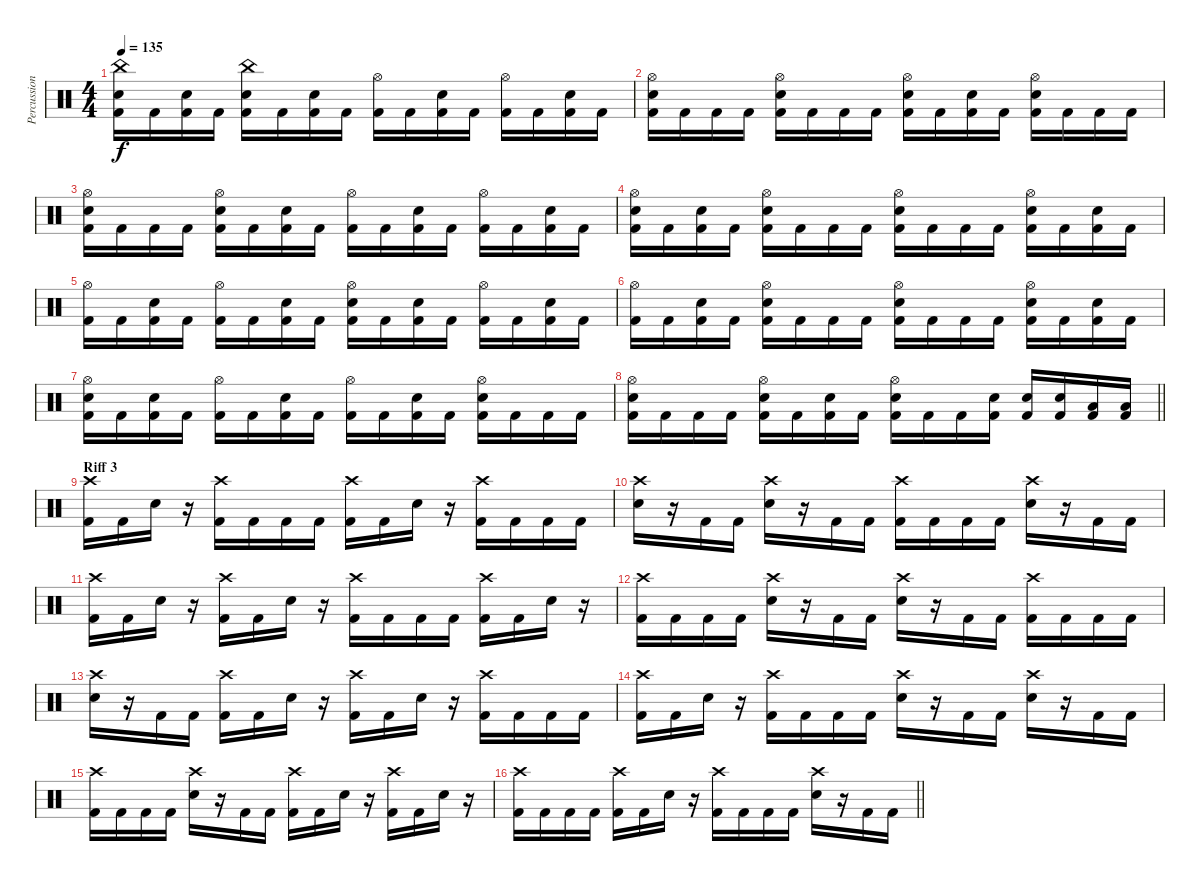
\track ("Percussion" "Percussion") {instrument percussion}
\staff {score}
\articulation defaults
\ts (4 4)
\tempo 135
\clef neutral
\ks c
("China (hit)" "Snare (hit) 2" "Kick (hit) 2").16{dy f} "Kick (hit) 2".16 ("Snare (hit) 2" "Kick (hit) 2").16 "Kick (hit) 2".16 ("China (hit)" "Snare (hit) 2" "Kick (hit) 2").16 "Kick (hit) 2".16 ("Snare (hit) 2" "Kick (hit) 2").16 "Kick (hit) 2".16 ("Hi-Hat (open)" "Kick (hit) 2").16 "Kick (hit) 2".16 ("Snare (hit) 2" "Kick (hit) 2").16 "Kick (hit) 2".16 ("Hi-Hat (open)" "Kick (hit) 2").16 "Kick (hit) 2".16 ("Snare (hit) 2" "Kick (hit) 2").16 "Kick (hit) 2".16 |
("Hi-Hat (open)" "Snare (hit) 2" "Kick (hit) 2").16 "Kick (hit) 2".16 "Kick (hit) 2".16 "Kick (hit) 2".16 ("Hi-Hat (open)" "Snare (hit) 2" "Kick (hit) 2").16 "Kick (hit) 2".16 "Kick (hit) 2".16 "Kick (hit) 2".16 ("Hi-Hat (open)" "Snare (hit) 2" "Kick (hit) 2").16 "Kick (hit) 2".16 ("Snare (hit) 2" "Kick (hit) 2").16 "Kick (hit) 2".16 ("Hi-Hat (open)" "Snare (hit) 2" "Kick (hit) 2").16 "Kick (hit) 2".16 "Kick (hit) 2".16 "Kick (hit) 2".16 |
("Hi-Hat (open)" "Snare (hit) 2" "Kick (hit) 2").16 "Kick (hit) 2".16 "Kick (hit) 2".16 "Kick (hit) 2".16 ("Hi-Hat (open)" "Snare (hit) 2" "Kick (hit) 2").16 "Kick (hit) 2".16 ("Snare (hit) 2" "Kick (hit) 2").16 "Kick (hit) 2".16 ("Hi-Hat (open)" "Kick (hit) 2").16 "Kick (hit) 2".16 ("Snare (hit) 2" "Kick (hit) 2").16 "Kick (hit) 2".16 ("Hi-Hat (open)" "Kick (hit) 2").16 "Kick (hit) 2".16 ("Snare (hit) 2" "Kick (hit) 2").16 "Kick (hit) 2".16 |
("Hi-Hat (open)" "Snare (hit) 2" "Kick (hit) 2").16 "Kick (hit) 2".16 ("Snare (hit) 2" "Kick (hit) 2").16 "Kick (hit) 2".16 ("Hi-Hat (open)" "Snare (hit) 2" "Kick (hit) 2").16 "Kick (hit) 2".16 "Kick (hit) 2".16 "Kick (hit) 2".16 ("Hi-Hat (open)" "Snare (hit) 2" "Kick (hit) 2").16 "Kick (hit) 2".16 "Kick (hit) 2".16 "Kick (hit) 2".16 ("Hi-Hat (open)" "Snare (hit) 2" "Kick (hit) 2").16 "Kick (hit) 2".16 ("Snare (hit) 2" "Kick (hit) 2").16 "Kick (hit) 2".16 |
("Hi-Hat (open)" "Kick (hit) 2").16 "Kick (hit) 2".16 ("Snare (hit) 2" "Kick (hit) 2").16 "Kick (hit) 2".16 ("Hi-Hat (open)" "Kick (hit) 2").16 "Kick (hit) 2".16 ("Snare (hit) 2" "Kick (hit) 2").16 "Kick (hit) 2".16 ("Hi-Hat (open)" "Snare (hit) 2" "Kick (hit) 2").16 "Kick (hit) 2".16 ("Snare (hit) 2" "Kick (hit) 2").16 "Kick (hit) 2".16 ("Hi-Hat (open)" "Kick (hit) 2").16 "Kick (hit) 2".16 ("Snare (hit) 2" "Kick (hit) 2").16 "Kick (hit) 2".16 |
("Hi-Hat (open)" "Kick (hit) 2").16 "Kick (hit) 2".16 ("Snare (hit) 2" "Kick (hit) 2").16 "Kick (hit) 2".16 ("Hi-Hat (open)" "Snare (hit) 2" "Kick (hit) 2").16 "Kick (hit) 2".16 "Kick (hit) 2".16 "Kick (hit) 2".16 ("Hi-Hat (open)" "Snare (hit) 2" "Kick (hit) 2").16 "Kick (hit) 2".16 "Kick (hit) 2".16 "Kick (hit) 2".16 ("Hi-Hat (open)" "Snare (hit) 2" "Kick (hit) 2").16 "Kick (hit) 2".16 ("Snare (hit) 2" "Kick (hit) 2").16 "Kick (hit) 2".16 |
("Hi-Hat (open)" "Snare (hit) 2" "Kick (hit) 2").16 "Kick (hit) 2".16 ("Snare (hit) 2" "Kick (hit) 2").16 "Kick (hit) 2".16 ("Hi-Hat (open)" "Kick (hit) 2").16 "Kick (hit) 2".16 ("Snare (hit) 2" "Kick (hit) 2").16 "Kick (hit) 2".16 ("Hi-Hat (open)" "Kick (hit) 2").16 "Kick (hit) 2".16 ("Snare (hit) 2" "Kick (hit) 2").16 "Kick (hit) 2".16 ("Hi-Hat (open)" "Snare (hit) 2" "Kick (hit) 2").16 "Kick (hit) 2".16 "Kick (hit) 2".16 "Kick (hit) 2".16 |
\barLineRight lightlight
("Hi-Hat (open)" "Snare (hit) 2" "Kick (hit) 2").16 "Kick (hit) 2".16 "Kick (hit) 2".16 "Kick (hit) 2".16 ("Hi-Hat (open)" "Snare (hit) 2" "Kick (hit) 2").16 "Kick (hit) 2".16 ("Snare (hit) 2" "Kick (hit) 2").16 "Kick (hit) 2".16 ("Hi-Hat (open)" "Snare (hit) 2" "Kick (hit) 2").16 "Kick (hit) 2".16 "Kick (hit) 2".16 ("Snare (hit) 2" "Kick (hit) 2").16 ("Snare (hit) 2" "Kick (hit) 2").16 ("Snare (hit) 2" "Kick (hit) 2").16 ("Low Tom (hit)" "Kick (hit) 2").16 ("Low Tom (hit)" "Kick (hit) 2").16 |
\section ("" "Riff 3")
("Crash high (hit)" "Kick (hit) 2").16 "Kick (hit) 2".16 "Snare (hit) 2".16 r.16 ("Crash high (hit)" "Kick (hit) 2").16 "Kick (hit) 2".16 "Kick (hit) 2".16 "Kick (hit) 2".16 ("Crash high (hit)" "Kick (hit) 2").16 "Kick (hit) 2".16 "Snare (hit) 2".16 r.16 ("Crash high (hit)" "Kick (hit) 2").16 "Kick (hit) 2".16 "Kick (hit) 2".16 "Kick (hit) 2".16 |
("Crash high (hit)" "Snare (hit) 2").16 r.16 "Kick (hit) 2".16 "Kick (hit) 2".16 ("Crash high (hit)" "Snare (hit) 2").16 r.16 "Kick (hit) 2".16 "Kick (hit) 2".16 ("Crash high (hit)" "Kick (hit) 2").16 "Kick (hit) 2".16 "Kick (hit) 2".16 "Kick (hit) 2".16 ("Crash high (hit)" "Snare (hit) 2").16 r.16 "Kick (hit) 2".16 "Kick (hit) 2".16 |
("Crash high (hit)" "Kick (hit) 2").16 "Kick (hit) 2".16 "Snare (hit) 2".16 r.16 ("Crash high (hit)" "Kick (hit) 2").16 "Kick (hit) 2".16 "Snare (hit) 2".16 r.16 ("Crash high (hit)" "Kick (hit) 2").16 "Kick (hit) 2".16 "Kick (hit) 2".16 "Kick (hit) 2".16 ("Crash high (hit)" "Kick (hit) 2").16 "Kick (hit) 2".16 "Snare (hit) 2".16 r.16 |
("Crash high (hit)" "Kick (hit) 2").16 "Kick (hit) 2".16 "Kick (hit) 2".16 "Kick (hit) 2".16 ("Crash high (hit)" "Snare (hit) 2").16 r.16 "Kick (hit) 2".16 "Kick (hit) 2".16 ("Crash high (hit)" "Snare (hit) 2").16 r.16 "Kick (hit) 2".16 "Kick (hit) 2".16 ("Crash high (hit)" "Kick (hit) 2").16 "Kick (hit) 2".16 "Kick (hit) 2".16 "Kick (hit) 2".16 |
("Crash high (hit)" "Snare (hit) 2").16 r.16 "Kick (hit) 2".16 "Kick (hit) 2".16 ("Crash high (hit)" "Kick (hit) 2").16 "Kick (hit) 2".16 "Snare (hit) 2".16 r.16 ("Crash high (hit)" "Kick (hit) 2").16 "Kick (hit) 2".16 "Snare (hit) 2".16 r.16 ("Crash high (hit)" "Kick (hit) 2").16 "Kick (hit) 2".16 "Kick (hit) 2".16 "Kick (hit) 2".16 |
("Crash high (hit)" "Kick (hit) 2").16 "Kick (hit) 2".16 "Snare (hit) 2".16 r.16 ("Crash high (hit)" "Kick (hit) 2").16 "Kick (hit) 2".16 "Kick (hit) 2".16 "Kick (hit) 2".16 ("Crash high (hit)" "Snare (hit) 2").16 r.16 "Kick (hit) 2".16 "Kick (hit) 2".16 ("Crash high (hit)" "Snare (hit) 2").16 r.16 "Kick (hit) 2".16 "Kick (hit) 2".16 |
("Crash high (hit)" "Kick (hit) 2").16 "Kick (hit) 2".16 "Kick (hit) 2".16 "Kick (hit) 2".16 ("Crash high (hit)" "Snare (hit) 2").16 r.16 "Kick (hit) 2".16 "Kick (hit) 2".16 ("Crash high (hit)" "Kick (hit) 2").16 "Kick (hit) 2".16 "Snare (hit) 2".16 r.16 ("Crash high (hit)" "Kick (hit) 2").16 "Kick (hit) 2".16 "Snare (hit) 2".16 r.16 |
\barLineRight lightlight
("Crash high (hit)" "Kick (hit) 2").16 "Kick (hit) 2".16 "Kick (hit) 2".16 "Kick (hit) 2".16 ("Crash high (hit)" "Kick (hit) 2").16 "Kick (hit) 2".16 "Snare (hit) 2".16 r.16 ("Crash high (hit)" "Kick (hit) 2").16 "Kick (hit) 2".16 "Kick (hit) 2".16 "Kick (hit) 2".16 ("Crash high (hit)" "Snare (hit) 2").16 r.16 "Kick (hit) 2".16 "Kick (hit) 2".16
